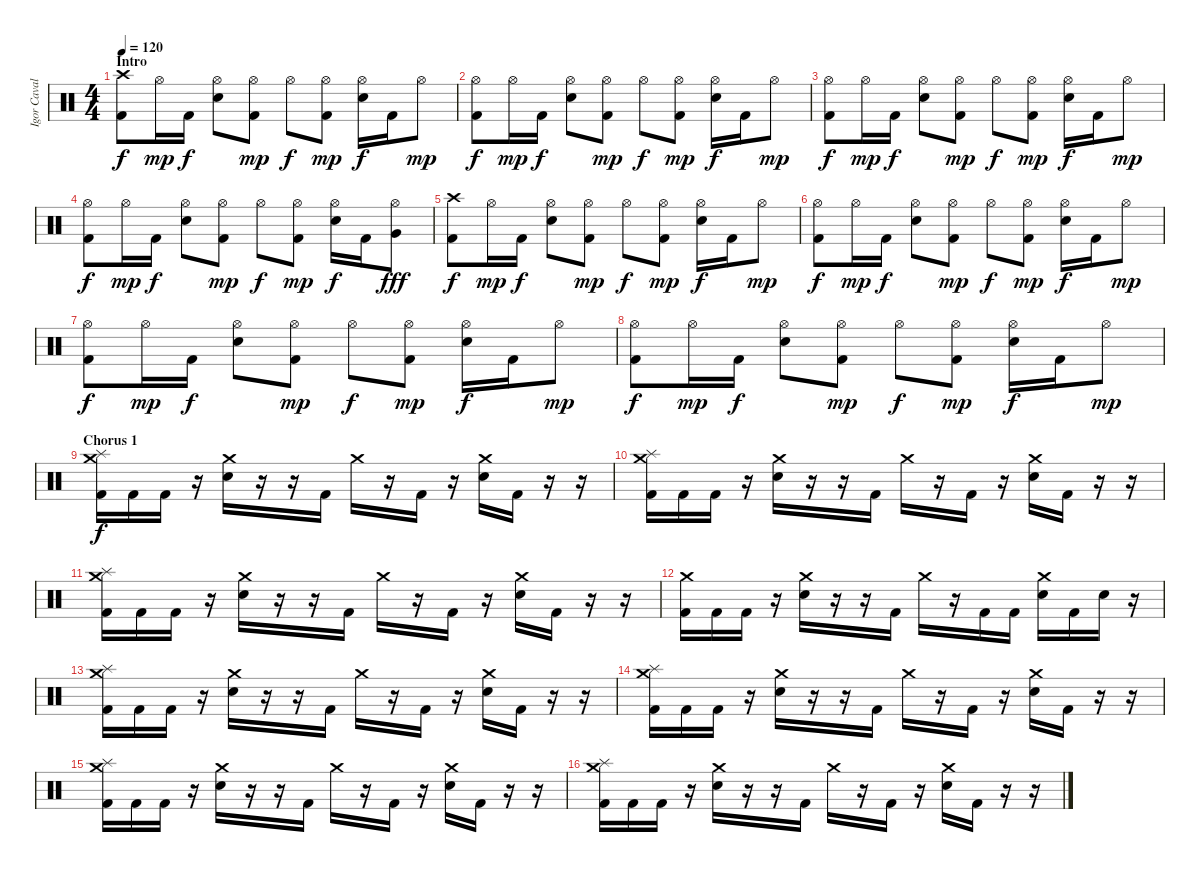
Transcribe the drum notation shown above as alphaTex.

\track ("Igor Cavalera" "Igor Caval") {instrument percussion}
\staff {score}
\articulation defaults
\ts (4 4)
\section ("" "Intro")
\tempo 120
\clef neutral
\ks c
("Crash high (hit)" "Kick (hit) 2").8{dy f} "Hi-Hat (open)".16{dy mp} "Kick (hit) 2".16{dy f} ("Hi-Hat (open)" "Electric Snare (hit)").8 ("Hi-Hat (open)" "Kick (hit) 2").8{dy mp} "Hi-Hat (open)".8{dy f} ("Hi-Hat (open)" "Kick (hit) 2").8{dy mp} ("Hi-Hat (open)" "Electric Snare (hit)").16{dy f} "Kick (hit) 2".16 "Hi-Hat (open)".8{dy mp} |
("Hi-Hat (open)" "Kick (hit) 2").8{dy f} "Hi-Hat (open)".16{dy mp} "Kick (hit) 2".16{dy f} ("Hi-Hat (open)" "Electric Snare (hit)").8 ("Hi-Hat (open)" "Kick (hit) 2").8{dy mp} "Hi-Hat (open)".8{dy f} ("Hi-Hat (open)" "Kick (hit) 2").8{dy mp} ("Hi-Hat (open)" "Electric Snare (hit)").16{dy f} "Kick (hit) 2".16 "Hi-Hat (open)".8{dy mp} |
("Hi-Hat (open)" "Kick (hit) 2").8{dy f} "Hi-Hat (open)".16{dy mp} "Kick (hit) 2".16{dy f} ("Hi-Hat (open)" "Electric Snare (hit)").8 ("Hi-Hat (open)" "Kick (hit) 2").8{dy mp} "Hi-Hat (open)".8{dy f} ("Hi-Hat (open)" "Kick (hit) 2").8{dy mp} ("Hi-Hat (open)" "Electric Snare (hit)").16{dy f} "Kick (hit) 2".16 "Hi-Hat (open)".8{dy mp} |
("Hi-Hat (open)" "Kick (hit) 2").8{dy f} "Hi-Hat (open)".16{dy mp} "Kick (hit) 2".16{dy f} ("Hi-Hat (open)" "Electric Snare (hit)").8 ("Hi-Hat (open)" "Kick (hit) 2").8{dy mp} "Hi-Hat (open)".8{dy f} ("Hi-Hat (open)" "Kick (hit) 2").8{dy mp} ("Hi-Hat (open)" "Electric Snare (hit)").16{dy f} "Kick (hit) 2".16 ("Hi-Hat (open)" "Very Low Tom (hit)").8{dy fff} |
("Crash high (hit)" "Kick (hit) 2").8{dy f} "Hi-Hat (open)".16{dy mp} "Kick (hit) 2".16{dy f} ("Hi-Hat (open)" "Electric Snare (hit)").8 ("Hi-Hat (open)" "Kick (hit) 2").8{dy mp} "Hi-Hat (open)".8{dy f} ("Hi-Hat (open)" "Kick (hit) 2").8{dy mp} ("Hi-Hat (open)" "Electric Snare (hit)").16{dy f} "Kick (hit) 2".16 "Hi-Hat (open)".8{dy mp} |
("Hi-Hat (open)" "Kick (hit) 2").8{dy f} "Hi-Hat (open)".16{dy mp} "Kick (hit) 2".16{dy f} ("Hi-Hat (open)" "Electric Snare (hit)").8 ("Hi-Hat (open)" "Kick (hit) 2").8{dy mp} "Hi-Hat (open)".8{dy f} ("Hi-Hat (open)" "Kick (hit) 2").8{dy mp} ("Hi-Hat (open)" "Electric Snare (hit)").16{dy f} "Kick (hit) 2".16 "Hi-Hat (open)".8{dy mp} |
("Hi-Hat (open)" "Kick (hit) 2").8{dy f} "Hi-Hat (open)".16{dy mp} "Kick (hit) 2".16{dy f} ("Hi-Hat (open)" "Electric Snare (hit)").8 ("Hi-Hat (open)" "Kick (hit) 2").8{dy mp} "Hi-Hat (open)".8{dy f} ("Hi-Hat (open)" "Kick (hit) 2").8{dy mp} ("Hi-Hat (open)" "Electric Snare (hit)").16{dy f} "Kick (hit) 2".16 "Hi-Hat (open)".8{dy mp} |
("Hi-Hat (open)" "Kick (hit) 2").8{dy f} "Hi-Hat (open)".16{dy mp} "Kick (hit) 2".16{dy f} ("Hi-Hat (open)" "Electric Snare (hit)").8 ("Hi-Hat (open)" "Kick (hit) 2").8{dy mp} "Hi-Hat (open)".8{dy f} ("Hi-Hat (open)" "Kick (hit) 2").8{dy mp} ("Hi-Hat (open)" "Electric Snare (hit)").16{dy f} "Kick (hit) 2".16 "Hi-Hat (open)".8{dy mp} |
\section ("" "Chorus 1")
("Splash (hit)" "Kick (hit) 2" "Crash medium (hit)").16{dy f} "Kick (hit) 2".16 "Kick (hit) 2".16 r.16 ("Crash medium (hit)" "Electric Snare (hit)").16 r.16 r.16 "Kick (hit) 2".16 "Crash medium (hit)".16 r.16 "Kick (hit) 2".16 r.16 ("Crash medium (hit)" "Electric Snare (hit)").16 "Kick (hit) 2".16 r.16 r.16 |
("Splash (hit)" "Kick (hit) 2" "Crash medium (hit)").16 "Kick (hit) 2".16 "Kick (hit) 2".16 r.16 ("Crash medium (hit)" "Electric Snare (hit)").16 r.16 r.16 "Kick (hit) 2".16 "Crash medium (hit)".16 r.16 "Kick (hit) 2".16 r.16 ("Crash medium (hit)" "Electric Snare (hit)").16 "Kick (hit) 2".16 r.16 r.16 |
("Splash (hit)" "Kick (hit) 2" "Crash medium (hit)").16 "Kick (hit) 2".16 "Kick (hit) 2".16 r.16 ("Crash medium (hit)" "Electric Snare (hit)").16 r.16 r.16 "Kick (hit) 2".16 "Crash medium (hit)".16 r.16 "Kick (hit) 2".16 r.16 ("Crash medium (hit)" "Electric Snare (hit)").16 "Kick (hit) 2".16 r.16 r.16 |
("Kick (hit) 2" "Crash medium (hit)").16 "Kick (hit) 2".16 "Kick (hit) 2".16 r.16 ("Crash medium (hit)" "Electric Snare (hit)").16 r.16 r.16 "Kick (hit) 2".16 "Crash medium (hit)".16 r.16 "Kick (hit) 2".16 "Kick (hit) 2".16 ("Crash medium (hit)" "Electric Snare (hit)").16 "Kick (hit) 2".16 "Electric Snare (hit)".16 r.16 |
("Splash (hit)" "Kick (hit) 2" "Crash medium (hit)").16 "Kick (hit) 2".16 "Kick (hit) 2".16 r.16 ("Crash medium (hit)" "Electric Snare (hit)").16 r.16 r.16 "Kick (hit) 2".16 "Crash medium (hit)".16 r.16 "Kick (hit) 2".16 r.16 ("Crash medium (hit)" "Electric Snare (hit)").16 "Kick (hit) 2".16 r.16 r.16 |
("Splash (hit)" "Kick (hit) 2" "Crash medium (hit)").16 "Kick (hit) 2".16 "Kick (hit) 2".16 r.16 ("Crash medium (hit)" "Electric Snare (hit)").16 r.16 r.16 "Kick (hit) 2".16 "Crash medium (hit)".16 r.16 "Kick (hit) 2".16 r.16 ("Crash medium (hit)" "Electric Snare (hit)").16 "Kick (hit) 2".16 r.16 r.16 |
("Splash (hit)" "Kick (hit) 2" "Crash medium (hit)").16 "Kick (hit) 2".16 "Kick (hit) 2".16 r.16 ("Crash medium (hit)" "Electric Snare (hit)").16 r.16 r.16 "Kick (hit) 2".16 "Crash medium (hit)".16 r.16 "Kick (hit) 2".16 r.16 ("Crash medium (hit)" "Electric Snare (hit)").16 "Kick (hit) 2".16 r.16 r.16 |
("Splash (hit)" "Kick (hit) 2" "Crash medium (hit)").16 "Kick (hit) 2".16 "Kick (hit) 2".16 r.16 ("Crash medium (hit)" "Electric Snare (hit)").16 r.16 r.16 "Kick (hit) 2".16 "Crash medium (hit)".16 r.16 "Kick (hit) 2".16 r.16 ("Crash medium (hit)" "Electric Snare (hit)").16 "Kick (hit) 2".16 r.16 r.16
